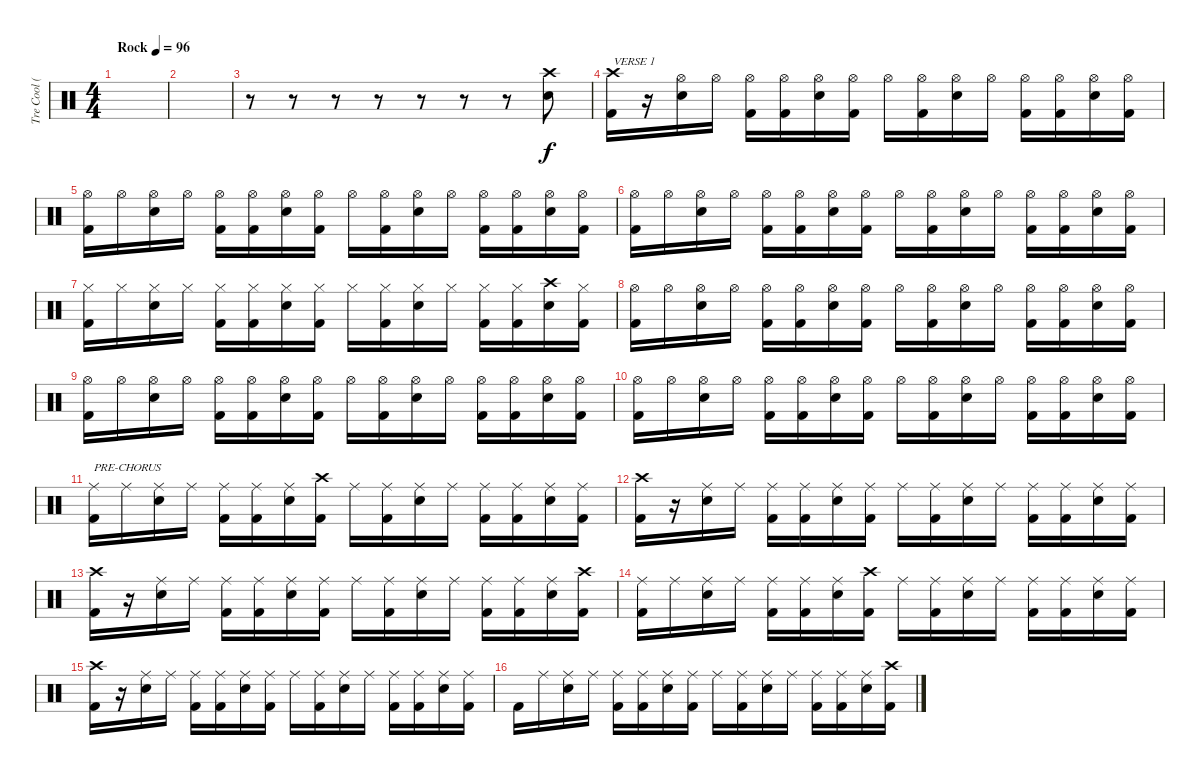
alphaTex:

\track ("Tre Cool (Drums)" "Tre Cool (") {instrument percussion}
\staff {score}
\articulation defaults
\ts (4 4)
\tempo (96 "Rock")
\clef neutral
\ks c
|
|
r.8 r.8 r.8 r.8 r.8 r.8 r.8 ("Crash high (hit)" "Electric Snare (hit)").8 |
("Crash high (hit)" "Kick (hit) 2").16{txt "VERSE 1"} r.16 ("Hi-Hat (open)" "Electric Snare (hit)").16 "Hi-Hat (open)".16 ("Hi-Hat (open)" "Kick (hit) 2").16 ("Hi-Hat (open)" "Kick (hit) 2").16 ("Hi-Hat (open)" "Electric Snare (hit)").16 ("Hi-Hat (open)" "Kick (hit) 2").16 "Hi-Hat (open)".16 ("Hi-Hat (open)" "Kick (hit) 2").16 ("Hi-Hat (open)" "Electric Snare (hit)").16 "Hi-Hat (open)".16 ("Hi-Hat (open)" "Kick (hit) 2").16 ("Hi-Hat (open)" "Kick (hit) 2").16 ("Hi-Hat (open)" "Electric Snare (hit)").16 ("Hi-Hat (open)" "Kick (hit) 2").16 |
("Hi-Hat (open)" "Kick (hit) 2").16 "Hi-Hat (open)".16 ("Hi-Hat (open)" "Electric Snare (hit)").16 "Hi-Hat (open)".16 ("Hi-Hat (open)" "Kick (hit) 2").16 ("Hi-Hat (open)" "Kick (hit) 2").16 ("Hi-Hat (open)" "Electric Snare (hit)").16 ("Hi-Hat (open)" "Kick (hit) 2").16 "Hi-Hat (open)".16 ("Hi-Hat (open)" "Kick (hit) 2").16 ("Hi-Hat (open)" "Electric Snare (hit)").16 "Hi-Hat (open)".16 ("Hi-Hat (open)" "Kick (hit) 2").16 ("Hi-Hat (open)" "Kick (hit) 2").16 ("Hi-Hat (open)" "Electric Snare (hit)").16 ("Hi-Hat (open)" "Kick (hit) 2").16 |
("Hi-Hat (open)" "Kick (hit) 2").16 "Hi-Hat (open)".16 ("Hi-Hat (open)" "Electric Snare (hit)").16 "Hi-Hat (open)".16 ("Hi-Hat (open)" "Kick (hit) 2").16 ("Hi-Hat (open)" "Kick (hit) 2").16 ("Hi-Hat (open)" "Electric Snare (hit)").16 ("Hi-Hat (open)" "Kick (hit) 2").16 "Hi-Hat (open)".16 ("Hi-Hat (open)" "Kick (hit) 2").16 ("Hi-Hat (open)" "Electric Snare (hit)").16 "Hi-Hat (open)".16 ("Hi-Hat (open)" "Kick (hit) 2").16 ("Hi-Hat (open)" "Kick (hit) 2").16 ("Hi-Hat (open)" "Electric Snare (hit)").16 ("Hi-Hat (open)" "Kick (hit) 2").16 |
("Hi-Hat (closed)" "Kick (hit) 2").16 "Hi-Hat (closed)".16 ("Hi-Hat (closed)" "Electric Snare (hit)").16 "Hi-Hat (closed)".16 ("Hi-Hat (closed)" "Kick (hit) 2").16 ("Hi-Hat (closed)" "Kick (hit) 2").16 ("Hi-Hat (closed)" "Electric Snare (hit)").16 ("Hi-Hat (closed)" "Kick (hit) 2").16 "Hi-Hat (closed)".16 ("Hi-Hat (closed)" "Kick (hit) 2").16 ("Hi-Hat (closed)" "Electric Snare (hit)").16 "Hi-Hat (closed)".16 ("Hi-Hat (closed)" "Kick (hit) 2").16 ("Hi-Hat (closed)" "Kick (hit) 2").16 ("Crash high (hit)" "Electric Snare (hit)").16 ("Hi-Hat (closed)" "Kick (hit) 2").16 |
("Hi-Hat (open)" "Kick (hit) 2").16 "Hi-Hat (open)".16 ("Hi-Hat (open)" "Electric Snare (hit)").16 "Hi-Hat (open)".16 ("Hi-Hat (open)" "Kick (hit) 2").16 ("Hi-Hat (open)" "Kick (hit) 2").16 ("Hi-Hat (open)" "Electric Snare (hit)").16 ("Hi-Hat (open)" "Kick (hit) 2").16 "Hi-Hat (open)".16 ("Hi-Hat (open)" "Kick (hit) 2").16 ("Hi-Hat (open)" "Electric Snare (hit)").16 "Hi-Hat (open)".16 ("Hi-Hat (open)" "Kick (hit) 2").16 ("Hi-Hat (open)" "Kick (hit) 2").16 ("Hi-Hat (open)" "Electric Snare (hit)").16 ("Hi-Hat (open)" "Kick (hit) 2").16 |
("Hi-Hat (open)" "Kick (hit) 2").16 "Hi-Hat (open)".16 ("Hi-Hat (open)" "Electric Snare (hit)").16 "Hi-Hat (open)".16 ("Hi-Hat (open)" "Kick (hit) 2").16 ("Hi-Hat (open)" "Kick (hit) 2").16 ("Hi-Hat (open)" "Electric Snare (hit)").16 ("Hi-Hat (open)" "Kick (hit) 2").16 "Hi-Hat (open)".16 ("Hi-Hat (open)" "Kick (hit) 2").16 ("Hi-Hat (open)" "Electric Snare (hit)").16 "Hi-Hat (open)".16 ("Hi-Hat (open)" "Kick (hit) 2").16 ("Hi-Hat (open)" "Kick (hit) 2").16 ("Hi-Hat (open)" "Electric Snare (hit)").16 ("Hi-Hat (open)" "Kick (hit) 2").16 |
("Hi-Hat (open)" "Kick (hit) 2").16 "Hi-Hat (open)".16 ("Hi-Hat (open)" "Electric Snare (hit)").16 "Hi-Hat (open)".16 ("Hi-Hat (open)" "Kick (hit) 2").16 ("Hi-Hat (open)" "Kick (hit) 2").16 ("Hi-Hat (open)" "Electric Snare (hit)").16 ("Hi-Hat (open)" "Kick (hit) 2").16 "Hi-Hat (open)".16 ("Hi-Hat (open)" "Kick (hit) 2").16 ("Hi-Hat (open)" "Electric Snare (hit)").16 "Hi-Hat (open)".16 ("Hi-Hat (open)" "Kick (hit) 2").16 ("Hi-Hat (open)" "Kick (hit) 2").16 ("Hi-Hat (open)" "Electric Snare (hit)").16 ("Hi-Hat (open)" "Kick (hit) 2").16 |
("Ride (middle)" "Kick (hit) 2").16{txt "PRE-CHORUS"} "Ride (middle)".16 ("Ride (middle)" "Electric Snare (hit)").16 "Ride (middle)".16 ("Ride (middle)" "Kick (hit) 2").16 ("Ride (middle)" "Kick (hit) 2").16 ("Ride (middle)" "Electric Snare (hit)").16 ("Crash high (hit)" "Kick (hit) 2").16 "Ride (middle)".16 ("Ride (middle)" "Kick (hit) 2").16 ("Ride (middle)" "Electric Snare (hit)").16 "Ride (middle)".16 ("Ride (middle)" "Kick (hit) 2").16 ("Ride (middle)" "Kick (hit) 2").16 ("Ride (middle)" "Electric Snare (hit)").16 ("Ride (middle)" "Kick (hit) 2").16 |
("Crash high (hit)" "Kick (hit) 2").16 r.16 ("Ride (middle)" "Electric Snare (hit)").16 "Ride (middle)".16 ("Ride (middle)" "Kick (hit) 2").16 ("Ride (middle)" "Kick (hit) 2").16 ("Ride (middle)" "Electric Snare (hit)").16 ("Ride (middle)" "Kick (hit) 2").16 "Ride (middle)".16 ("Ride (middle)" "Kick (hit) 2").16 ("Ride (middle)" "Electric Snare (hit)").16 "Ride (middle)".16 ("Ride (middle)" "Kick (hit) 2").16 ("Ride (middle)" "Kick (hit) 2").16 ("Ride (middle)" "Electric Snare (hit)").16 ("Ride (middle)" "Kick (hit) 2").16 |
("Crash high (hit)" "Kick (hit) 2").16 r.16 ("Ride (middle)" "Electric Snare (hit)").16 "Ride (middle)".16 ("Ride (middle)" "Kick (hit) 2").16 ("Ride (middle)" "Kick (hit) 2").16 ("Ride (middle)" "Electric Snare (hit)").16 ("Ride (middle)" "Kick (hit) 2").16 "Ride (middle)".16 ("Ride (middle)" "Kick (hit) 2").16 ("Ride (middle)" "Electric Snare (hit)").16 "Ride (middle)".16 ("Ride (middle)" "Kick (hit) 2").16 ("Ride (middle)" "Kick (hit) 2").16 ("Ride (middle)" "Electric Snare (hit)").16 ("Crash high (hit)" "Kick (hit) 2").16 |
("Ride (middle)" "Kick (hit) 2").16 "Ride (middle)".16 ("Ride (middle)" "Electric Snare (hit)").16 "Ride (middle)".16 ("Ride (middle)" "Kick (hit) 2").16 ("Ride (middle)" "Kick (hit) 2").16 ("Ride (middle)" "Electric Snare (hit)").16 ("Crash high (hit)" "Kick (hit) 2").16 "Ride (middle)".16 ("Ride (middle)" "Kick (hit) 2").16 ("Ride (middle)" "Electric Snare (hit)").16 "Ride (middle)".16 ("Ride (middle)" "Kick (hit) 2").16 ("Ride (middle)" "Kick (hit) 2").16 ("Ride (middle)" "Electric Snare (hit)").16 ("Ride (middle)" "Kick (hit) 2").16 |
("Crash high (hit)" "Kick (hit) 2").16 r.16 ("Ride (middle)" "Electric Snare (hit)").16 "Ride (middle)".16 ("Ride (middle)" "Kick (hit) 2").16 ("Ride (middle)" "Kick (hit) 2").16 ("Ride (middle)" "Electric Snare (hit)").16 ("Ride (middle)" "Kick (hit) 2").16 "Ride (middle)".16 ("Ride (middle)" "Kick (hit) 2").16 ("Ride (middle)" "Electric Snare (hit)").16 "Ride (middle)".16 ("Ride (middle)" "Kick (hit) 2").16 ("Ride (middle)" "Kick (hit) 2").16 ("Ride (middle)" "Electric Snare (hit)").16 ("Ride (middle)" "Kick (hit) 2").16 |
"Kick (hit) 2".16 "Ride (middle)".16 ("Ride (middle)" "Electric Snare (hit)").16 "Ride (middle)".16 ("Ride (middle)" "Kick (hit) 2").16 ("Ride (middle)" "Kick (hit) 2").16 ("Ride (middle)" "Electric Snare (hit)").16 ("Ride (middle)" "Kick (hit) 2").16 "Ride (middle)".16 ("Ride (middle)" "Kick (hit) 2").16 ("Ride (middle)" "Electric Snare (hit)").16 "Ride (middle)".16 ("Ride (middle)" "Kick (hit) 2").16 ("Ride (middle)" "Kick (hit) 2").16 ("Ride (middle)" "Electric Snare (hit)").16 ("Crash high (hit)" "Kick (hit) 2").16
